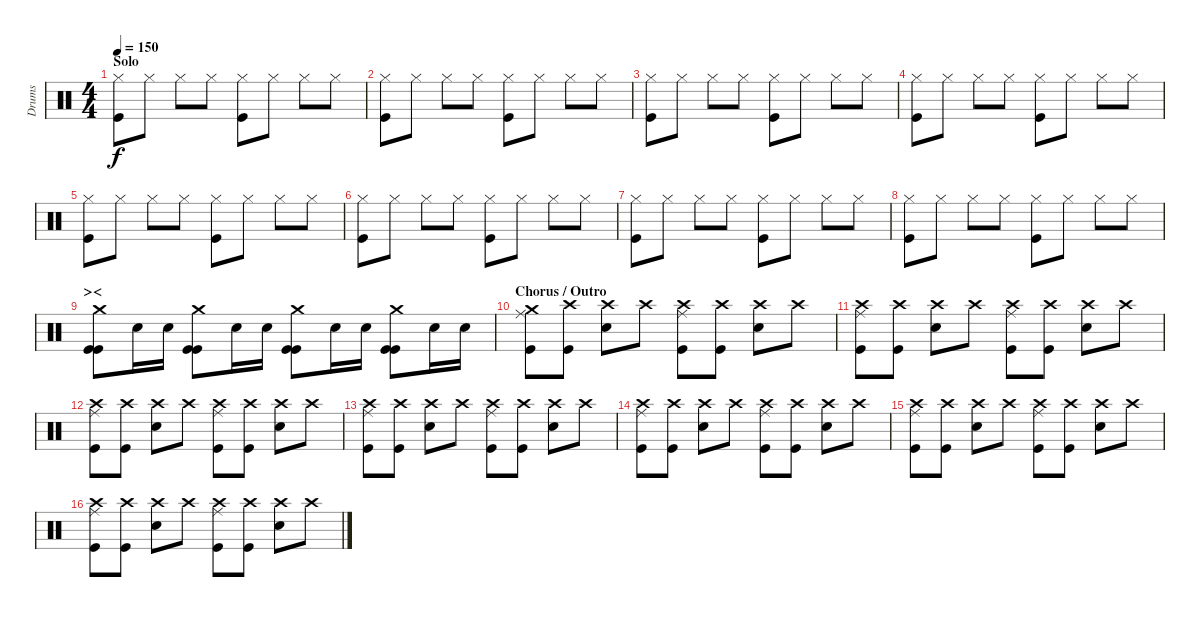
\track ("Drums" "Drums") {instrument percussion}
\staff {score}
\articulation defaults
\ts (4 4)
\section ("" "Solo")
\tempo 150
\clef neutral
\ks c
("Hi-Hat (closed)" "Kick (hit)").8{dy f} "Hi-Hat (closed)".8 "Hi-Hat (closed)".8 "Hi-Hat (closed)".8 ("Hi-Hat (closed)" "Kick (hit)").8 "Hi-Hat (closed)".8 "Hi-Hat (closed)".8 "Hi-Hat (closed)".8 |
("Hi-Hat (closed)" "Kick (hit)").8 "Hi-Hat (closed)".8 "Hi-Hat (closed)".8 "Hi-Hat (closed)".8 ("Hi-Hat (closed)" "Kick (hit)").8 "Hi-Hat (closed)".8 "Hi-Hat (closed)".8 "Hi-Hat (closed)".8 |
("Hi-Hat (closed)" "Kick (hit)").8 "Hi-Hat (closed)".8 "Hi-Hat (closed)".8 "Hi-Hat (closed)".8 ("Hi-Hat (closed)" "Kick (hit)").8 "Hi-Hat (closed)".8 "Hi-Hat (closed)".8 "Hi-Hat (closed)".8 |
("Hi-Hat (closed)" "Kick (hit)").8 "Hi-Hat (closed)".8 "Hi-Hat (closed)".8 "Hi-Hat (closed)".8 ("Hi-Hat (closed)" "Kick (hit)").8 "Hi-Hat (closed)".8 "Hi-Hat (closed)".8 "Hi-Hat (closed)".8 |
("Hi-Hat (closed)" "Kick (hit)").8 "Hi-Hat (closed)".8 "Hi-Hat (closed)".8 "Hi-Hat (closed)".8 ("Hi-Hat (closed)" "Kick (hit)").8 "Hi-Hat (closed)".8 "Hi-Hat (closed)".8 "Hi-Hat (closed)".8 |
("Hi-Hat (closed)" "Kick (hit)").8 "Hi-Hat (closed)".8 "Hi-Hat (closed)".8 "Hi-Hat (closed)".8 ("Hi-Hat (closed)" "Kick (hit)").8 "Hi-Hat (closed)".8 "Hi-Hat (closed)".8 "Hi-Hat (closed)".8 |
("Hi-Hat (closed)" "Kick (hit)").8 "Hi-Hat (closed)".8 "Hi-Hat (closed)".8 "Hi-Hat (closed)".8 ("Hi-Hat (closed)" "Kick (hit)").8 "Hi-Hat (closed)".8 "Hi-Hat (closed)".8 "Hi-Hat (closed)".8 |
("Hi-Hat (closed)" "Kick (hit)").8 "Hi-Hat (closed)".8 "Hi-Hat (closed)".8 "Hi-Hat (closed)".8 ("Hi-Hat (closed)" "Kick (hit)").8 "Hi-Hat (closed)".8 "Hi-Hat (closed)".8 "Hi-Hat (closed)".8 |
\section ("" "><")
("Crash medium (hit)" "Kick (hit)" "Kick (hit)").8 "Snare (hit) 2".16 "Snare (hit) 2".16 ("Crash medium (hit)" "Kick (hit)" "Kick (hit)").8 "Snare (hit) 2".16 "Snare (hit) 2".16 ("Crash medium (hit)" "Kick (hit)" "Kick (hit)").8 "Snare (hit) 2".16 "Snare (hit) 2".16 ("Crash medium (hit)" "Kick (hit)" "Kick (hit)").8 "Snare (hit) 2".16 "Snare (hit) 2".16 |
\section ("" "Chorus / Outro")
("Crash medium (hit)" "Ride (middle)" "Kick (hit)").8 ("Crash high (hit)" "Kick (hit)").8 ("Crash high (hit)" "Snare (hit) 2").8 "Crash high (hit)".8 ("Crash high (hit)" "Ride (middle)" "Kick (hit)").8 ("Crash high (hit)" "Kick (hit)").8 ("Crash high (hit)" "Snare (hit) 2").8 "Crash high (hit)".8 |
("Crash high (hit)" "Ride (middle)" "Kick (hit)").8 ("Crash high (hit)" "Kick (hit)").8 ("Crash high (hit)" "Snare (hit) 2").8 "Crash high (hit)".8 ("Crash high (hit)" "Ride (middle)" "Kick (hit)").8 ("Crash high (hit)" "Kick (hit)").8 ("Crash high (hit)" "Snare (hit) 2").8 "Crash high (hit)".8 |
("Crash high (hit)" "Ride (middle)" "Kick (hit)").8 ("Crash high (hit)" "Kick (hit)").8 ("Crash high (hit)" "Snare (hit) 2").8 "Crash high (hit)".8 ("Crash high (hit)" "Ride (middle)" "Kick (hit)").8 ("Crash high (hit)" "Kick (hit)").8 ("Crash high (hit)" "Snare (hit) 2").8 "Crash high (hit)".8 |
("Crash high (hit)" "Ride (middle)" "Kick (hit)").8 ("Crash high (hit)" "Kick (hit)").8 ("Crash high (hit)" "Snare (hit) 2").8 "Crash high (hit)".8 ("Crash high (hit)" "Ride (middle)" "Kick (hit)").8 ("Crash high (hit)" "Kick (hit)").8 ("Crash high (hit)" "Snare (hit) 2").8 "Crash high (hit)".8 |
("Crash high (hit)" "Ride (middle)" "Kick (hit)").8 ("Crash high (hit)" "Kick (hit)").8 ("Crash high (hit)" "Snare (hit) 2").8 "Crash high (hit)".8 ("Crash high (hit)" "Ride (middle)" "Kick (hit)").8 ("Crash high (hit)" "Kick (hit)").8 ("Crash high (hit)" "Snare (hit) 2").8 "Crash high (hit)".8 |
("Crash high (hit)" "Ride (middle)" "Kick (hit)").8 ("Crash high (hit)" "Kick (hit)").8 ("Crash high (hit)" "Snare (hit) 2").8 "Crash high (hit)".8 ("Crash high (hit)" "Ride (middle)" "Kick (hit)").8 ("Crash high (hit)" "Kick (hit)").8 ("Crash high (hit)" "Snare (hit) 2").8 "Crash high (hit)".8 |
("Crash high (hit)" "Ride (middle)" "Kick (hit)").8 ("Crash high (hit)" "Kick (hit)").8 ("Crash high (hit)" "Snare (hit) 2").8 "Crash high (hit)".8 ("Crash high (hit)" "Ride (middle)" "Kick (hit)").8 ("Crash high (hit)" "Kick (hit)").8 ("Crash high (hit)" "Snare (hit) 2").8 "Crash high (hit)".8
